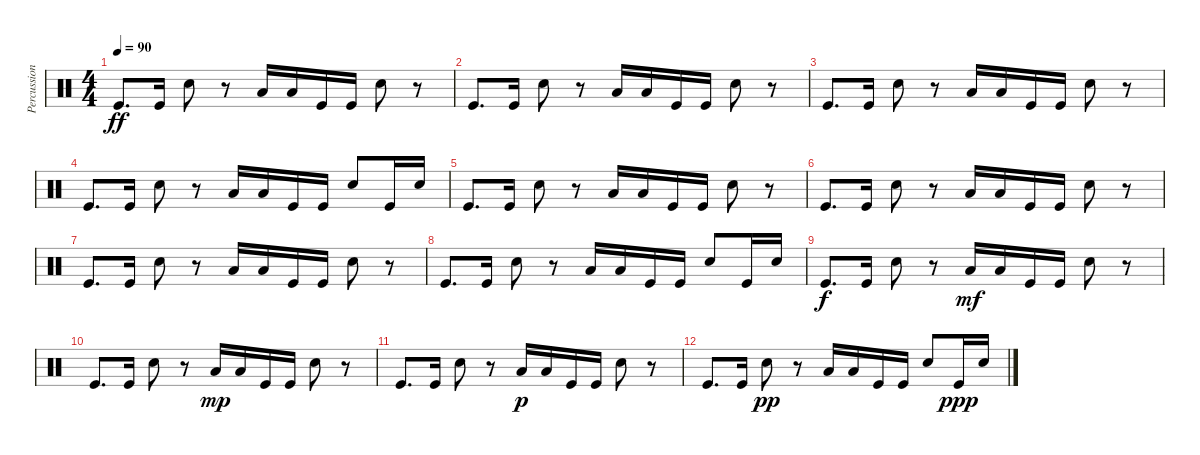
\track ("Percussion" "Percussion") {instrument percussion}
\staff {score}
\articulation defaults
\ts (4 4)
\tempo 90
\clef neutral
\ks c "Kick (hit)".8{d dy ff} "Kick (hit)".16 "Snare (hit) 2".8
r.8 "Low Floor Tom (hit)".16 "Low Floor Tom (hit)".16 "Kick (hit)".16 "Kick (hit)".16 "Snare (hit) 2".8 r.8 |
"Kick (hit)".8{d} "Kick (hit)".16 "Snare (hit) 2".8 r.8 "Low Floor Tom (hit)".16 "Low Floor Tom (hit)".16 "Kick (hit)".16 "Kick (hit)".16 "Snare (hit) 2".8 r.8 |
"Kick (hit)".8{d} "Kick (hit)".16 "Snare (hit) 2".8 r.8 "Low Floor Tom (hit)".16 "Low Floor Tom (hit)".16 "Kick (hit)".16 "Kick (hit)".16 "Snare (hit) 2".8 r.8 |
"Kick (hit)".8{d} "Kick (hit)".16 "Snare (hit) 2".8 r.8 "Low Floor Tom (hit)".16 "Low Floor Tom (hit)".16 "Kick (hit)".16 "Kick (hit)".16 "Snare (hit) 2".8 "Kick (hit)".16 "Snare (hit) 2".16 |
"Kick (hit)".8{d} "Kick (hit)".16 "Snare (hit) 2".8 r.8 "Low Floor Tom (hit)".16 "Low Floor Tom (hit)".16 "Kick (hit)".16 "Kick (hit)".16 "Snare (hit) 2".8 r.8 |
"Kick (hit)".8{d} "Kick (hit)".16 "Snare (hit) 2".8 r.8 "Low Floor Tom (hit)".16 "Low Floor Tom (hit)".16 "Kick (hit)".16 "Kick (hit)".16 "Snare (hit) 2".8 r.8 |
"Kick (hit)".8{d} "Kick (hit)".16 "Snare (hit) 2".8 r.8 "Low Floor Tom (hit)".16 "Low Floor Tom (hit)".16 "Kick (hit)".16 "Kick (hit)".16 "Snare (hit) 2".8 r.8 |
"Kick (hit)".8{d} "Kick (hit)".16 "Snare (hit) 2".8 r.8 "Low Floor Tom (hit)".16 "Low Floor Tom (hit)".16 "Kick (hit)".16 "Kick (hit)".16 "Snare (hit) 2".8 "Kick (hit)".16 "Snare (hit) 2".16 |
"Kick (hit)".8{d dy f} "Kick (hit)".16 "Snare (hit) 2".8 r.8 "Low Floor Tom (hit)".16{dy mf} "Low Floor Tom (hit)".16 "Kick (hit)".16 "Kick (hit)".16 "Snare (hit) 2".8 r.8 |
"Kick (hit)".8{d} "Kick (hit)".16 "Snare (hit) 2".8 r.8 "Low Floor Tom (hit)".16{dy mp} "Low Floor Tom (hit)".16 "Kick (hit)".16 "Kick (hit)".16 "Snare (hit) 2".8 r.8 |
"Kick (hit)".8{d} "Kick (hit)".16 "Snare (hit) 2".8 r.8 "Low Floor Tom (hit)".16{dy p} "Low Floor Tom (hit)".16 "Kick (hit)".16 "Kick (hit)".16 "Snare (hit) 2".8 r.8 |
"Kick (hit)".8{d} "Kick (hit)".16 "Snare (hit) 2".8{dy pp} r.8 "Low Floor Tom (hit)".16 "Low Floor Tom (hit)".16 "Kick (hit)".16 "Kick (hit)".16 "Snare (hit) 2".8 "Kick (hit)".16{dy ppp} "Snare (hit) 2".16
